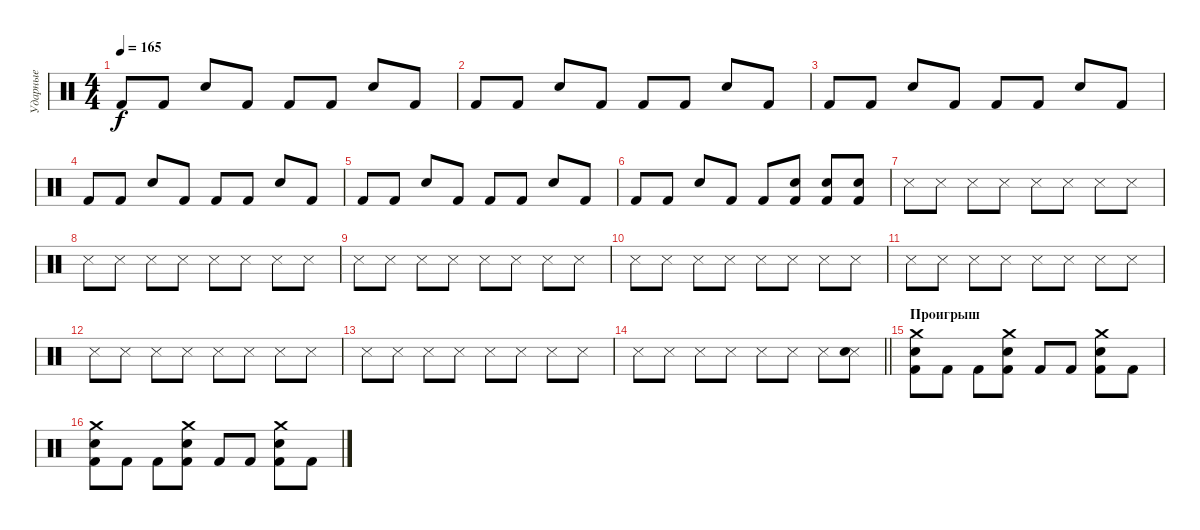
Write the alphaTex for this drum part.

\track ("Ударные" "Ударные") {instrument percussion}
\staff {score}
\articulation defaults
\ts (4 4)
\tempo 165
\clef neutral
\ks c "Kick (hit) 2".8{dy f} "Kick (hit) 2".8 "Snare (hit) 2".8 "Kick (hit) 2".8 "Kick (hit) 2".8 "Kick (hit) 2".8 "Snare (hit) 2".8 "Kick (hit) 2".8
|
"Kick (hit) 2".8 "Kick (hit) 2".8 "Snare (hit) 2".8 "Kick (hit) 2".8 "Kick (hit) 2".8 "Kick (hit) 2".8 "Snare (hit) 2".8 "Kick (hit) 2".8 |
"Kick (hit) 2".8 "Kick (hit) 2".8 "Snare (hit) 2".8 "Kick (hit) 2".8 "Kick (hit) 2".8 "Kick (hit) 2".8 "Snare (hit) 2".8 "Kick (hit) 2".8 |
"Kick (hit) 2".8 "Kick (hit) 2".8 "Snare (hit) 2".8 "Kick (hit) 2".8 "Kick (hit) 2".8 "Kick (hit) 2".8 "Snare (hit) 2".8 "Kick (hit) 2".8 |
"Kick (hit) 2".8 "Kick (hit) 2".8 "Snare (hit) 2".8 "Kick (hit) 2".8 "Kick (hit) 2".8 "Kick (hit) 2".8 "Snare (hit) 2".8 "Kick (hit) 2".8 |
"Kick (hit) 2".8 "Kick (hit) 2".8 "Snare (hit) 2".8 "Kick (hit) 2".8 "Kick (hit) 2".8 ("Kick (hit) 2" "Snare (hit) 2").8 ("Kick (hit) 2" "Snare (hit) 2").8 ("Kick (hit) 2" "Snare (hit) 2").8 |
"Snare (side stick) 3".8 "Snare (side stick) 3".8 "Snare (side stick) 3".8 "Snare (side stick) 3".8 "Snare (side stick) 3".8 "Snare (side stick) 3".8 "Snare (side stick) 3".8 "Snare (side stick) 3".8 |
"Snare (side stick) 3".8 "Snare (side stick) 3".8 "Snare (side stick) 3".8 "Snare (side stick) 3".8 "Snare (side stick) 3".8 "Snare (side stick) 3".8 "Snare (side stick) 3".8 "Snare (side stick) 3".8 |
"Snare (side stick) 3".8 "Snare (side stick) 3".8 "Snare (side stick) 3".8 "Snare (side stick) 3".8 "Snare (side stick) 3".8 "Snare (side stick) 3".8 "Snare (side stick) 3".8 "Snare (side stick) 3".8 |
"Snare (side stick) 3".8 "Snare (side stick) 3".8 "Snare (side stick) 3".8 "Snare (side stick) 3".8 "Snare (side stick) 3".8 "Snare (side stick) 3".8 "Snare (side stick) 3".8 "Snare (side stick) 3".8 |
"Snare (side stick) 3".8 "Snare (side stick) 3".8 "Snare (side stick) 3".8 "Snare (side stick) 3".8 "Snare (side stick) 3".8 "Snare (side stick) 3".8 "Snare (side stick) 3".8 "Snare (side stick) 3".8 |
"Snare (side stick) 3".8 "Snare (side stick) 3".8 "Snare (side stick) 3".8 "Snare (side stick) 3".8 "Snare (side stick) 3".8 "Snare (side stick) 3".8 "Snare (side stick) 3".8 "Snare (side stick) 3".8 |
"Snare (side stick) 3".8 "Snare (side stick) 3".8 "Snare (side stick) 3".8 "Snare (side stick) 3".8 "Snare (side stick) 3".8 "Snare (side stick) 3".8 "Snare (side stick) 3".8 "Snare (side stick) 3".8 |
\barLineRight lightlight "Snare (side stick) 3".8 "Snare (side stick) 3".8 "Snare (side stick) 3".8 "Snare (side stick) 3".8 "Snare (side stick) 3".8 "Snare (side stick) 3".8 "Snare (side stick) 3".8
("Snare (side stick) 3" "Snare (hit) 2").8 |
\section ("" "Проигрыш")
("Snare (hit) 2" "Kick (hit) 2" "Crash medium (hit)").8 "Kick (hit) 2".8 "Kick (hit) 2".8 ("Snare (hit) 2" "Kick (hit) 2" "Crash medium (hit)").8 "Kick (hit) 2".8 "Kick (hit) 2".8 ("Snare (hit) 2" "Kick (hit) 2" "Crash medium (hit)").8 "Kick (hit) 2".8 |
("Snare (hit) 2" "Kick (hit) 2" "Crash medium (hit)").8 "Kick (hit) 2".8 "Kick (hit) 2".8 ("Snare (hit) 2" "Kick (hit) 2" "Crash medium (hit)").8 "Kick (hit) 2".8 "Kick (hit) 2".8 ("Snare (hit) 2" "Kick (hit) 2" "Crash medium (hit)").8 "Kick (hit) 2".8
